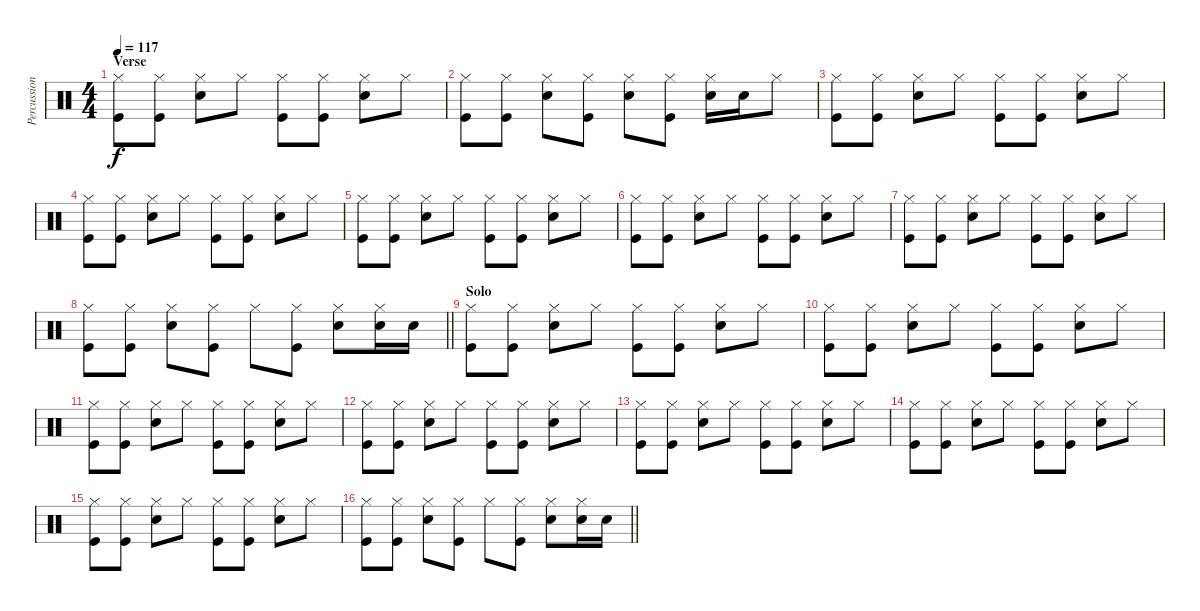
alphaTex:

\track ("Percussion" "Percussion") {instrument percussion}
\staff
\articulation defaults
\ts (4 4)
\section ("" "Verse")
\tempo 117
\clef neutral
\ks c
("Hi-Hat (closed)" "Kick (hit)").8{dy f} ("Hi-Hat (closed)" "Kick (hit)").8 ("Hi-Hat (closed)" "Snare (hit) 2").8 "Hi-Hat (closed)".8 ("Hi-Hat (closed)" "Kick (hit)").8 ("Hi-Hat (closed)" "Kick (hit)").8 ("Hi-Hat (closed)" "Snare (hit) 2").8 "Hi-Hat (closed)".8 |
("Hi-Hat (closed)" "Kick (hit)").8 ("Hi-Hat (closed)" "Kick (hit)").8 ("Hi-Hat (closed)" "Snare (hit) 2").8 ("Hi-Hat (closed)" "Kick (hit)").8 ("Hi-Hat (closed)" "Snare (hit) 2").8 ("Hi-Hat (closed)" "Kick (hit)").8 ("Hi-Hat (closed)" "Snare (hit) 2").16 "Snare (hit) 2".16 "Hi-Hat (closed)".8 |
("Hi-Hat (closed)" "Kick (hit)").8 ("Hi-Hat (closed)" "Kick (hit)").8 ("Hi-Hat (closed)" "Snare (hit) 2").8 "Hi-Hat (closed)".8 ("Hi-Hat (closed)" "Kick (hit)").8 ("Hi-Hat (closed)" "Kick (hit)").8 ("Hi-Hat (closed)" "Snare (hit) 2").8 "Hi-Hat (closed)".8 |
("Hi-Hat (closed)" "Kick (hit)").8 ("Hi-Hat (closed)" "Kick (hit)").8 ("Hi-Hat (closed)" "Snare (hit) 2").8 "Hi-Hat (closed)".8 ("Hi-Hat (closed)" "Kick (hit)").8 ("Hi-Hat (closed)" "Kick (hit)").8 ("Hi-Hat (closed)" "Snare (hit) 2").8 "Hi-Hat (closed)".8 |
("Hi-Hat (closed)" "Kick (hit)").8 ("Hi-Hat (closed)" "Kick (hit)").8 ("Hi-Hat (closed)" "Snare (hit) 2").8 "Hi-Hat (closed)".8 ("Hi-Hat (closed)" "Kick (hit)").8 ("Hi-Hat (closed)" "Kick (hit)").8 ("Hi-Hat (closed)" "Snare (hit) 2").8 "Hi-Hat (closed)".8 |
("Hi-Hat (closed)" "Kick (hit)").8 ("Hi-Hat (closed)" "Kick (hit)").8 ("Hi-Hat (closed)" "Snare (hit) 2").8 "Hi-Hat (closed)".8 ("Hi-Hat (closed)" "Kick (hit)").8 ("Hi-Hat (closed)" "Kick (hit)").8 ("Hi-Hat (closed)" "Snare (hit) 2").8 "Hi-Hat (closed)".8 |
("Hi-Hat (closed)" "Kick (hit)").8 ("Hi-Hat (closed)" "Kick (hit)").8 ("Hi-Hat (closed)" "Snare (hit) 2").8 "Hi-Hat (closed)".8 ("Hi-Hat (closed)" "Kick (hit)").8 ("Hi-Hat (closed)" "Kick (hit)").8 ("Hi-Hat (closed)" "Snare (hit) 2").8 "Hi-Hat (closed)".8 |
\barLineRight lightlight
("Hi-Hat (closed)" "Kick (hit)").8 ("Hi-Hat (closed)" "Kick (hit)").8 ("Hi-Hat (closed)" "Snare (hit) 2").8 ("Hi-Hat (closed)" "Kick (hit)").8 "Hi-Hat (closed)".8 ("Hi-Hat (closed)" "Kick (hit)").8 ("Hi-Hat (closed)" "Snare (hit) 2").8 ("Hi-Hat (closed)" "Snare (hit) 2").16 "Snare (hit) 2".16 |
\section ("" "Solo")
("Hi-Hat (closed)" "Kick (hit)").8 ("Hi-Hat (closed)" "Kick (hit)").8 ("Hi-Hat (closed)" "Snare (hit) 2").8 "Hi-Hat (closed)".8 ("Hi-Hat (closed)" "Kick (hit)").8 ("Hi-Hat (closed)" "Kick (hit)").8 ("Hi-Hat (closed)" "Snare (hit) 2").8 "Hi-Hat (closed)".8 |
("Hi-Hat (closed)" "Kick (hit)").8 ("Hi-Hat (closed)" "Kick (hit)").8 ("Hi-Hat (closed)" "Snare (hit) 2").8 "Hi-Hat (closed)".8 ("Hi-Hat (closed)" "Kick (hit)").8 ("Hi-Hat (closed)" "Kick (hit)").8 ("Hi-Hat (closed)" "Snare (hit) 2").8 "Hi-Hat (closed)".8 |
("Hi-Hat (closed)" "Kick (hit)").8 ("Hi-Hat (closed)" "Kick (hit)").8 ("Hi-Hat (closed)" "Snare (hit) 2").8 "Hi-Hat (closed)".8 ("Hi-Hat (closed)" "Kick (hit)").8 ("Hi-Hat (closed)" "Kick (hit)").8 ("Hi-Hat (closed)" "Snare (hit) 2").8 "Hi-Hat (closed)".8 |
("Hi-Hat (closed)" "Kick (hit)").8 ("Hi-Hat (closed)" "Kick (hit)").8 ("Hi-Hat (closed)" "Snare (hit) 2").8 "Hi-Hat (closed)".8 ("Hi-Hat (closed)" "Kick (hit)").8 ("Hi-Hat (closed)" "Kick (hit)").8 ("Hi-Hat (closed)" "Snare (hit) 2").8 "Hi-Hat (closed)".8 |
("Hi-Hat (closed)" "Kick (hit)").8 ("Hi-Hat (closed)" "Kick (hit)").8 ("Hi-Hat (closed)" "Snare (hit) 2").8 "Hi-Hat (closed)".8 ("Hi-Hat (closed)" "Kick (hit)").8 ("Hi-Hat (closed)" "Kick (hit)").8 ("Hi-Hat (closed)" "Snare (hit) 2").8 "Hi-Hat (closed)".8 |
("Hi-Hat (closed)" "Kick (hit)").8 ("Hi-Hat (closed)" "Kick (hit)").8 ("Hi-Hat (closed)" "Snare (hit) 2").8 "Hi-Hat (closed)".8 ("Hi-Hat (closed)" "Kick (hit)").8 ("Hi-Hat (closed)" "Kick (hit)").8 ("Hi-Hat (closed)" "Snare (hit) 2").8 "Hi-Hat (closed)".8 |
("Hi-Hat (closed)" "Kick (hit)").8 ("Hi-Hat (closed)" "Kick (hit)").8 ("Hi-Hat (closed)" "Snare (hit) 2").8 "Hi-Hat (closed)".8 ("Hi-Hat (closed)" "Kick (hit)").8 ("Hi-Hat (closed)" "Kick (hit)").8 ("Hi-Hat (closed)" "Snare (hit) 2").8 "Hi-Hat (closed)".8 |
\barLineRight lightlight
("Hi-Hat (closed)" "Kick (hit)").8 ("Hi-Hat (closed)" "Kick (hit)").8 ("Hi-Hat (closed)" "Snare (hit) 2").8 ("Hi-Hat (closed)" "Kick (hit)").8 "Hi-Hat (closed)".8 ("Hi-Hat (closed)" "Kick (hit)").8 ("Hi-Hat (closed)" "Snare (hit) 2").8 ("Hi-Hat (closed)" "Snare (hit) 2").16 "Snare (hit) 2".16
